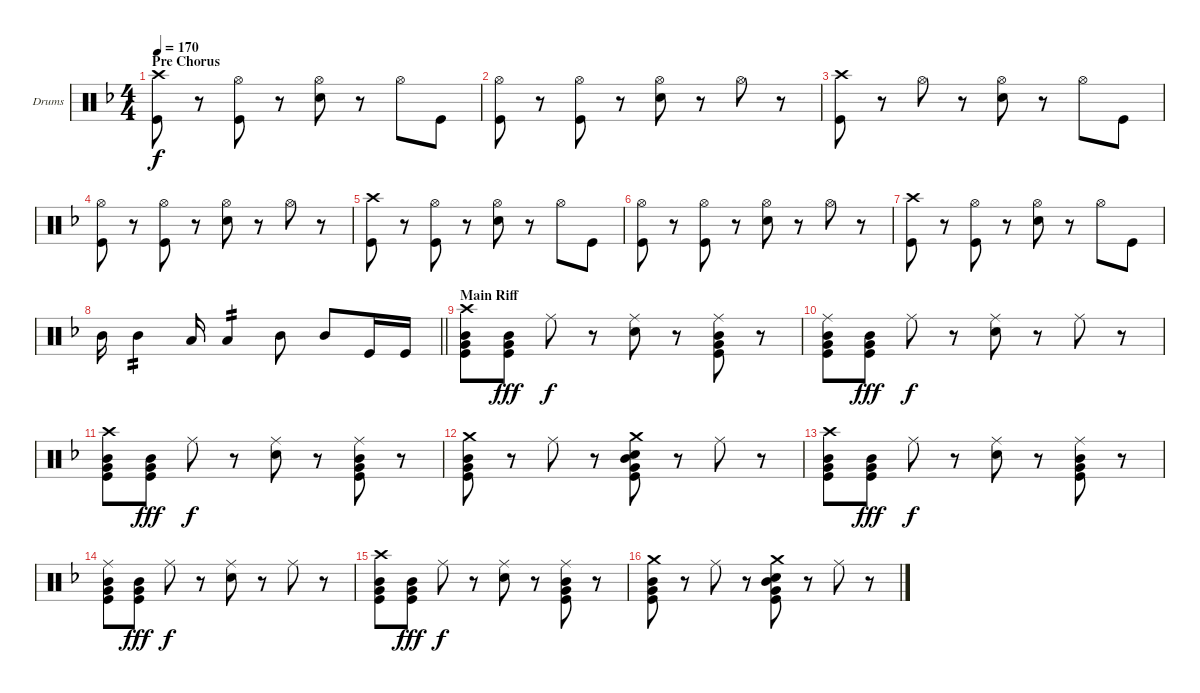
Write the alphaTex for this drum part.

\bracketExtendMode groupsimilarinstruments
\firstSystemTrackNameOrientation horizontal
\otherSystemsTrackNameOrientation horizontal
\track ("Drumkit" "Drums") {instrument percussion}
\staff {score}
\articulation defaults
\ts (4 4)
\section ("" "Pre Chorus")
\tempo 170
\clef neutral
\scale
0.333333
\ks dminor
("Crash high (hit)" "Kick (hit)").8{dy f} r.8 ("Hi-Hat (open)" "Kick (hit)").8 r.8 ("Hi-Hat (open)" "Snare (hit) 2").8 r.8 "Hi-Hat (open)".8 "Kick (hit)".8 |
\scale
0.333333 ("Hi-Hat (open)" "Kick (hit)").8 r.8 ("Hi-Hat (open)" "Kick (hit)").8 r.8 ("Hi-Hat (open)" "Snare (hit) 2").8 r.8 "Hi-Hat (open)".8 r.8 |
\scale
0.333333 ("Crash high (hit)" "Kick (hit)").8 r.8 "Hi-Hat (open)".8 r.8 ("Hi-Hat (open)" "Snare (hit) 2").8 r.8 "Hi-Hat (open)".8 "Kick (hit)".8 |
\scale
0.333333 ("Hi-Hat (open)" "Kick (hit)").8 r.8 ("Hi-Hat (open)" "Kick (hit)").8 r.8 ("Hi-Hat (open)" "Snare (hit) 2").8 r.8 "Hi-Hat (open)".8 r.8 |
\scale
0.333333 ("Crash high (hit)" "Kick (hit)").8 r.8 ("Hi-Hat (open)" "Kick (hit)").8 r.8 ("Hi-Hat (open)" "Snare (hit) 2").8 r.8 "Hi-Hat (open)".8 "Kick (hit)".8 |
\scale
0.333333 ("Hi-Hat (open)" "Kick (hit)").8 r.8 ("Hi-Hat (open)" "Kick (hit)").8 r.8 ("Hi-Hat (open)" "Snare (hit) 2").8 r.8 "Hi-Hat (open)".8 r.8 |
\scale
0.299625 ("Crash high (hit)" "Kick (hit)").8 r.8 ("Hi-Hat (open)" "Kick (hit)").8 r.8 ("Hi-Hat (open)" "Snare (hit) 2").8 r.8 "Hi-Hat (open)".8 "Kick (hit)".8 |
\scale
0.372659
\barLineRight lightlight "Mid Tom (hit)".16 "Mid Tom (hit)".4{tp 2} "Low Tom (hit)".16 "Low Tom (hit)".4{tp 2} "Mid Tom (hit)".8 "Mid Tom (hit)".8 "Kick (hit)".16 "Kick (hit)".16
|
\section ("" "Main Riff")
\scale
0.327715 ("Crash high (hit)" "Mid Tom (hit)" "Very Low Tom (hit)" "Kick (hit)").8 ("Mid Tom (hit)" "Very Low Tom (hit)" "Kick (hit)").8{dy fff} "Ride (middle)".8{dy f} r.8 ("Ride (middle)" "Snare (hit) 2").8 r.8 ("Ride (middle)" "Mid Tom (hit)" "Very Low Tom (hit)" "Kick (hit)").8 r.8 |
\scale
0.324074 ("Ride (middle)" "Mid Tom (hit)" "Very Low Tom (hit)" "Kick (hit)").8 ("Mid Tom (hit)" "Very Low Tom (hit)" "Kick (hit)").8{dy fff} "Ride (middle)".8{dy f} r.8 ("Ride (middle)" "Snare (hit) 2").8 r.8 "Ride (middle)".8 r.8 |
\scale
0.324074 ("Crash high (hit)" "Mid Tom (hit)" "Very Low Tom (hit)" "Kick (hit)").8 ("Mid Tom (hit)" "Very Low Tom (hit)" "Kick (hit)").8{dy fff} "Ride (middle)".8{dy f} r.8 ("Ride (middle)" "Snare (hit) 2").8 r.8 ("Ride (middle)" "Mid Tom (hit)" "Very Low Tom (hit)" "Kick (hit)").8 r.8 |
\scale
0.351852 ("Crash medium (hit)" "Mid Tom (hit)" "Very Low Tom (hit)" "Kick (hit)").8 r.8 "Ride (middle)".8 r.8 ("Crash medium (hit)" "Snare (hit) 2" "Mid Tom (hit)" "Very Low Tom (hit)" "Kick (hit)").8 r.8 "Ride (middle)".8 r.8 |
\scale
0.333333 ("Crash high (hit)" "Mid Tom (hit)" "Very Low Tom (hit)" "Kick (hit)").8 ("Mid Tom (hit)" "Very Low Tom (hit)" "Kick (hit)").8{dy fff} "Ride (middle)".8{dy f} r.8 ("Ride (middle)" "Snare (hit) 2").8 r.8 ("Ride (middle)" "Mid Tom (hit)" "Very Low Tom (hit)" "Kick (hit)").8 r.8 |
\scale
0.333333 ("Ride (middle)" "Mid Tom (hit)" "Very Low Tom (hit)" "Kick (hit)").8 ("Mid Tom (hit)" "Very Low Tom (hit)" "Kick (hit)").8{dy fff} "Ride (middle)".8{dy f} r.8 ("Ride (middle)" "Snare (hit) 2").8 r.8 "Ride (middle)".8 r.8 |
\scale
0.333333 ("Crash high (hit)" "Mid Tom (hit)" "Very Low Tom (hit)" "Kick (hit)").8 ("Mid Tom (hit)" "Very Low Tom (hit)" "Kick (hit)").8{dy fff} "Ride (middle)".8{dy f} r.8 ("Ride (middle)" "Snare (hit) 2").8 r.8 ("Ride (middle)" "Mid Tom (hit)" "Very Low Tom (hit)" "Kick (hit)").8 r.8 |
\scale
0.351852 ("Crash medium (hit)" "Mid Tom (hit)" "Very Low Tom (hit)" "Kick (hit)").8 r.8 "Ride (middle)".8 r.8 ("Crash medium (hit)" "Snare (hit) 2" "Mid Tom (hit)" "Very Low Tom (hit)" "Kick (hit)").8 r.8 "Ride (middle)".8 r.8
